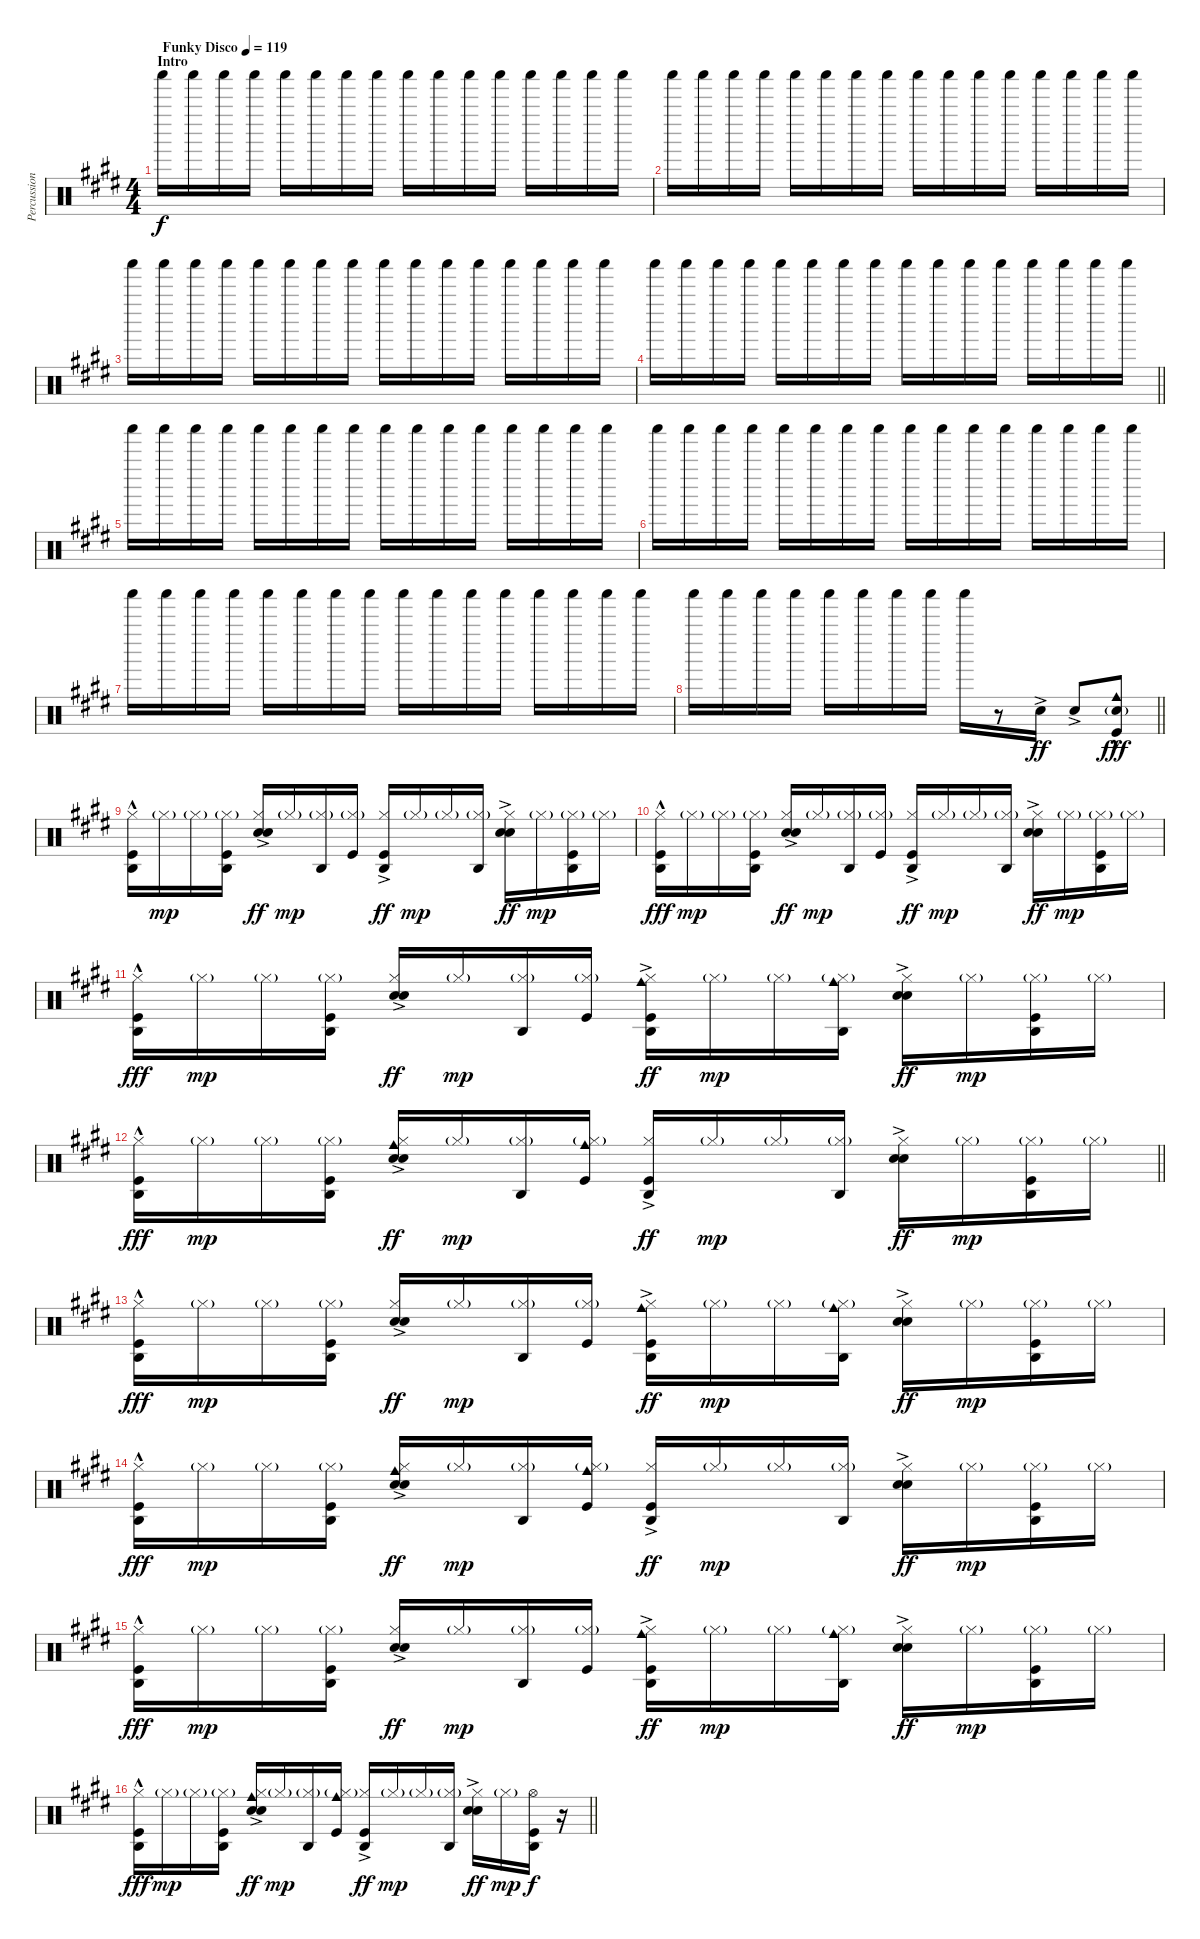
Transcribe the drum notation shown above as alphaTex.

\track ("Percussion" "Percussion") {instrument percussion}
\staff {score}
\articulation defaults
\ts (4 4)
\section ("" "Intro")
\tempo (119 "Funky Disco")
\clef neutral
\ks e "Shaker (hit)".16{dy f} "Shaker (hit)".16 "Shaker (hit)".16 "Shaker (hit)".16 "Shaker (hit)".16 "Shaker (hit)".16 "Shaker (hit)".16 "Shaker (hit)".16 "Shaker (hit)".16 "Shaker (hit)".16 "Shaker (hit)".16 "Shaker (hit)".16 "Shaker (hit)".16 "Shaker (hit)".16 "Shaker (hit)".16 "Shaker (hit)".16
|
"Shaker (hit)".16 "Shaker (hit)".16 "Shaker (hit)".16 "Shaker (hit)".16 "Shaker (hit)".16 "Shaker (hit)".16 "Shaker (hit)".16 "Shaker (hit)".16 "Shaker (hit)".16 "Shaker (hit)".16 "Shaker (hit)".16 "Shaker (hit)".16 "Shaker (hit)".16 "Shaker (hit)".16 "Shaker (hit)".16 "Shaker (hit)".16 |
"Shaker (hit)".16 "Shaker (hit)".16 "Shaker (hit)".16 "Shaker (hit)".16 "Shaker (hit)".16 "Shaker (hit)".16 "Shaker (hit)".16 "Shaker (hit)".16 "Shaker (hit)".16 "Shaker (hit)".16 "Shaker (hit)".16 "Shaker (hit)".16 "Shaker (hit)".16 "Shaker (hit)".16 "Shaker (hit)".16 "Shaker (hit)".16 |
\barLineRight lightlight "Shaker (hit)".16 "Shaker (hit)".16 "Shaker (hit)".16 "Shaker (hit)".16 "Shaker (hit)".16 "Shaker (hit)".16 "Shaker (hit)".16 "Shaker (hit)".16 "Shaker (hit)".16 "Shaker (hit)".16 "Shaker (hit)".16 "Shaker (hit)".16 "Shaker (hit)".16 "Shaker (hit)".16 "Shaker (hit)".16 "Shaker (hit)".16
|
"Shaker (hit)".16 "Shaker (hit)".16 "Shaker (hit)".16 "Shaker (hit)".16 "Shaker (hit)".16 "Shaker (hit)".16 "Shaker (hit)".16 "Shaker (hit)".16 "Shaker (hit)".16 "Shaker (hit)".16 "Shaker (hit)".16 "Shaker (hit)".16 "Shaker (hit)".16 "Shaker (hit)".16 "Shaker (hit)".16 "Shaker (hit)".16 |
"Shaker (hit)".16 "Shaker (hit)".16 "Shaker (hit)".16 "Shaker (hit)".16 "Shaker (hit)".16 "Shaker (hit)".16 "Shaker (hit)".16 "Shaker (hit)".16 "Shaker (hit)".16 "Shaker (hit)".16 "Shaker (hit)".16 "Shaker (hit)".16 "Shaker (hit)".16 "Shaker (hit)".16 "Shaker (hit)".16 "Shaker (hit)".16 |
"Shaker (hit)".16 "Shaker (hit)".16 "Shaker (hit)".16 "Shaker (hit)".16 "Shaker (hit)".16 "Shaker (hit)".16 "Shaker (hit)".16 "Shaker (hit)".16 "Shaker (hit)".16 "Shaker (hit)".16 "Shaker (hit)".16 "Shaker (hit)".16 "Shaker (hit)".16 "Shaker (hit)".16 "Shaker (hit)".16 "Shaker (hit)".16 |
\barLineRight lightlight "Shaker (hit)".16 "Shaker (hit)".16 "Shaker (hit)".16 "Shaker (hit)".16 "Shaker (hit)".16 "Shaker (hit)".16 "Shaker (hit)".16 "Shaker (hit)".16 "Shaker (hit)".16
r.8 "Snare (hit) 2"{ac}.16{dy ff} "Snare (hit) 2"{ac}.8 ("Cowbell medium (hit)" "Snare (hit) 2"{g} "Kick (hit)"{hac}).8{dy fff} |
("Agogo high (hit)" "Hi-Hat (closed)" "Kick (hit)"{hac}).16 "Hi-Hat (closed)"{g}.16{dy mp} "Hi-Hat (closed)"{g}.16 ("Agogo high (hit)" "Hi-Hat (closed)"{g} "Kick (hit)").16 ("Hi-Hat (closed)" "Hand Clap (hit)"{ac} "Snare (hit) 2"{ac}).16{dy ff} "Hi-Hat (closed)"{g}.16{dy mp} ("Agogo high (hit)" "Hi-Hat (closed)"{g}).16 ("Hi-Hat (closed)"{g} "Kick (hit)").16 ("Agogo high (hit)" "Hi-Hat (closed)" "Kick (hit)"{ac}).16{dy ff} "Hi-Hat (closed)"{g}.16{dy mp} "Hi-Hat (closed)"{g}.16 ("Agogo high (hit)" "Hi-Hat (closed)"{g}).16 ("Hi-Hat (closed)" "Hand Clap (hit)"{ac} "Snare (hit) 2"{ac}).16{dy ff} "Hi-Hat (closed)"{g}.16{dy mp} ("Agogo high (hit)" "Hi-Hat (closed)"{g} "Kick (hit)").16 "Hi-Hat (closed)"{g}.16 |
("Agogo high (hit)" "Hi-Hat (closed)" "Kick (hit)"{hac}).16{dy fff} "Hi-Hat (closed)"{g}.16{dy mp} "Hi-Hat (closed)"{g}.16 ("Agogo high (hit)" "Hi-Hat (closed)"{g} "Kick (hit)").16 ("Hi-Hat (closed)" "Hand Clap (hit)"{ac} "Snare (hit) 2"{ac}).16{dy ff} "Hi-Hat (closed)"{g}.16{dy mp} ("Agogo high (hit)" "Hi-Hat (closed)"{g}).16 ("Hi-Hat (closed)"{g} "Kick (hit)").16 ("Agogo high (hit)" "Hi-Hat (closed)" "Kick (hit)"{ac}).16{dy ff} "Hi-Hat (closed)"{g}.16{dy mp} "Hi-Hat (closed)"{g}.16 ("Agogo high (hit)" "Hi-Hat (closed)"{g}).16 ("Hi-Hat (closed)" "Hand Clap (hit)"{ac} "Snare (hit) 2"{ac}).16{dy ff} "Hi-Hat (closed)"{g}.16{dy mp} ("Agogo high (hit)" "Hi-Hat (closed)"{g} "Kick (hit)").16 "Hi-Hat (closed)"{g}.16 |
("Agogo high (hit)" "Hi-Hat (closed)" "Kick (hit)"{hac}).16{dy fff} "Hi-Hat (closed)"{g}.16{dy mp} "Hi-Hat (closed)"{g}.16 ("Agogo high (hit)" "Hi-Hat (closed)"{g} "Kick (hit)").16 ("Hi-Hat (closed)" "Hand Clap (hit)"{ac} "Snare (hit) 2"{ac}).16{dy ff} "Hi-Hat (closed)"{g}.16{dy mp} ("Agogo high (hit)" "Hi-Hat (closed)"{g}).16 ("Hi-Hat (closed)"{g} "Kick (hit)").16 ("Agogo high (hit)" "Cowbell medium (hit)" "Hi-Hat (closed)" "Kick (hit)"{ac}).16{dy ff} "Hi-Hat (closed)"{g}.16{dy mp} "Hi-Hat (closed)"{g}.16 ("Agogo high (hit)" "Cowbell medium (hit)" "Hi-Hat (closed)"{g}).16 ("Hi-Hat (closed)" "Hand Clap (hit)"{ac} "Snare (hit) 2"{ac}).16{dy ff} "Hi-Hat (closed)"{g}.16{dy mp} ("Agogo high (hit)" "Hi-Hat (closed)"{g} "Kick (hit)").16 "Hi-Hat (closed)"{g}.16 |
\barLineRight lightlight
("Agogo high (hit)" "Hi-Hat (closed)" "Kick (hit)"{hac}).16{dy fff} "Hi-Hat (closed)"{g}.16{dy mp} "Hi-Hat (closed)"{g}.16 ("Agogo high (hit)" "Hi-Hat (closed)"{g} "Kick (hit)").16 ("Cowbell medium (hit)" "Hi-Hat (closed)" "Hand Clap (hit)"{ac} "Snare (hit) 2"{ac}).16{dy ff} "Hi-Hat (closed)"{g}.16{dy mp} ("Agogo high (hit)" "Hi-Hat (closed)"{g}).16 ("Cowbell medium (hit)" "Hi-Hat (closed)"{g} "Kick (hit)").16 ("Agogo high (hit)" "Hi-Hat (closed)" "Kick (hit)"{ac}).16{dy ff} "Hi-Hat (closed)"{g}.16{dy mp} "Hi-Hat (closed)"{g}.16 ("Agogo high (hit)" "Hi-Hat (closed)"{g}).16 ("Hi-Hat (closed)" "Hand Clap (hit)"{ac} "Snare (hit) 2"{ac}).16{dy ff} "Hi-Hat (closed)"{g}.16{dy mp} ("Agogo high (hit)" "Hi-Hat (closed)"{g} "Kick (hit)").16 "Hi-Hat (closed)"{g}.16 |
("Agogo high (hit)" "Hi-Hat (closed)" "Kick (hit)"{hac}).16{dy fff} "Hi-Hat (closed)"{g}.16{dy mp} "Hi-Hat (closed)"{g}.16 ("Agogo high (hit)" "Hi-Hat (closed)"{g} "Kick (hit)").16 ("Hi-Hat (closed)" "Hand Clap (hit)"{ac} "Snare (hit) 2"{ac}).16{dy ff} "Hi-Hat (closed)"{g}.16{dy mp} ("Agogo high (hit)" "Hi-Hat (closed)"{g}).16 ("Hi-Hat (closed)"{g} "Kick (hit)").16 ("Agogo high (hit)" "Cowbell medium (hit)" "Hi-Hat (closed)" "Kick (hit)"{ac}).16{dy ff} "Hi-Hat (closed)"{g}.16{dy mp} "Hi-Hat (closed)"{g}.16 ("Agogo high (hit)" "Cowbell medium (hit)" "Hi-Hat (closed)"{g}).16 ("Hi-Hat (closed)" "Hand Clap (hit)"{ac} "Snare (hit) 2"{ac}).16{dy ff} "Hi-Hat (closed)"{g}.16{dy mp} ("Agogo high (hit)" "Hi-Hat (closed)"{g} "Kick (hit)").16 "Hi-Hat (closed)"{g}.16 |
("Agogo high (hit)" "Hi-Hat (closed)" "Kick (hit)"{hac}).16{dy fff} "Hi-Hat (closed)"{g}.16{dy mp} "Hi-Hat (closed)"{g}.16 ("Agogo high (hit)" "Hi-Hat (closed)"{g} "Kick (hit)").16 ("Cowbell medium (hit)" "Hi-Hat (closed)" "Hand Clap (hit)"{ac} "Snare (hit) 2"{ac}).16{dy ff} "Hi-Hat (closed)"{g}.16{dy mp} ("Agogo high (hit)" "Hi-Hat (closed)"{g}).16 ("Cowbell medium (hit)" "Hi-Hat (closed)"{g} "Kick (hit)").16 ("Agogo high (hit)" "Hi-Hat (closed)" "Kick (hit)"{ac}).16{dy ff} "Hi-Hat (closed)"{g}.16{dy mp} "Hi-Hat (closed)"{g}.16 ("Agogo high (hit)" "Hi-Hat (closed)"{g}).16 ("Hi-Hat (closed)" "Hand Clap (hit)"{ac} "Snare (hit) 2"{ac}).16{dy ff} "Hi-Hat (closed)"{g}.16{dy mp} ("Agogo high (hit)" "Hi-Hat (closed)"{g} "Kick (hit)").16 "Hi-Hat (closed)"{g}.16 |
("Agogo high (hit)" "Hi-Hat (closed)" "Kick (hit)"{hac}).16{dy fff} "Hi-Hat (closed)"{g}.16{dy mp} "Hi-Hat (closed)"{g}.16 ("Agogo high (hit)" "Hi-Hat (closed)"{g} "Kick (hit)").16 ("Hi-Hat (closed)" "Hand Clap (hit)"{ac} "Snare (hit) 2"{ac}).16{dy ff} "Hi-Hat (closed)"{g}.16{dy mp} ("Agogo high (hit)" "Hi-Hat (closed)"{g}).16 ("Hi-Hat (closed)"{g} "Kick (hit)").16 ("Agogo high (hit)" "Cowbell medium (hit)" "Hi-Hat (closed)" "Kick (hit)"{ac}).16{dy ff} "Hi-Hat (closed)"{g}.16{dy mp} "Hi-Hat (closed)"{g}.16 ("Agogo high (hit)" "Cowbell medium (hit)" "Hi-Hat (closed)"{g}).16 ("Hi-Hat (closed)" "Hand Clap (hit)"{ac} "Snare (hit) 2"{ac}).16{dy ff} "Hi-Hat (closed)"{g}.16{dy mp} ("Agogo high (hit)" "Hi-Hat (closed)"{g} "Kick (hit)").16 "Hi-Hat (closed)"{g}.16 |
\barLineRight lightlight
("Agogo high (hit)" "Hi-Hat (closed)" "Kick (hit)"{hac}).16{dy fff} "Hi-Hat (closed)"{g}.16{dy mp} "Hi-Hat (closed)"{g}.16 ("Agogo high (hit)" "Hi-Hat (closed)"{g} "Kick (hit)").16 ("Cowbell medium (hit)" "Hi-Hat (closed)" "Hand Clap (hit)"{ac} "Snare (hit) 2"{ac}).16{dy ff} "Hi-Hat (closed)"{g}.16{dy mp} ("Agogo high (hit)" "Hi-Hat (closed)"{g}).16 ("Cowbell medium (hit)" "Hi-Hat (closed)"{g} "Kick (hit)").16 ("Agogo high (hit)" "Hi-Hat (closed)" "Kick (hit)"{ac}).16{dy ff} "Hi-Hat (closed)"{g}.16{dy mp} "Hi-Hat (closed)"{g}.16 ("Agogo high (hit)" "Hi-Hat (closed)"{g}).16 ("Hi-Hat (closed)" "Hand Clap (hit)"{ac} "Snare (hit) 2"{ac}).16{dy ff} "Hi-Hat (closed)"{g}.16{dy mp} ("Agogo high (hit)" "Hi-Hat (open)" "Kick (hit)").16{dy f} r.16
